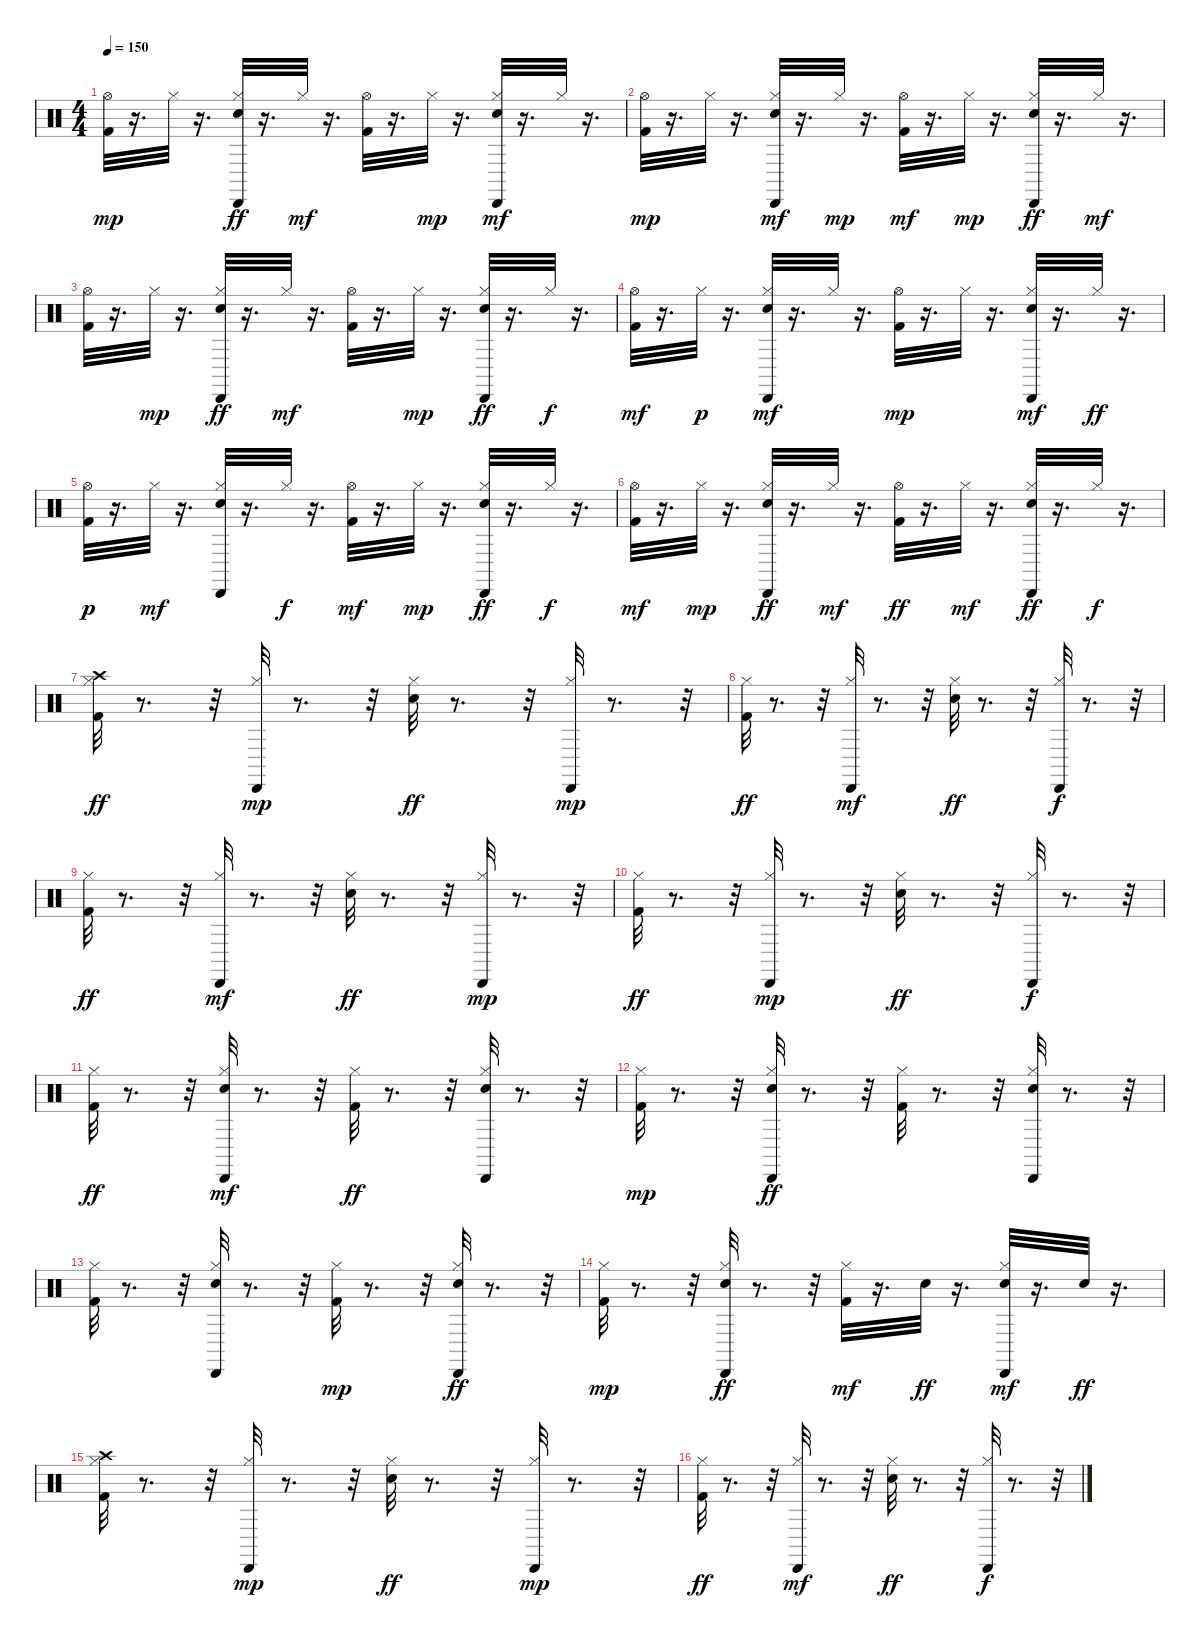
\track "" {instrument percussion}
\staff {score}
\articulation defaults
\ts (4 4)
\tempo 150
\clef neutral
\ks c
("Kick (hit) 2" "Hi-Hat (open)").32{dy mp} r.16{d} "Hi-Hat (closed)".32 r.16{d} ("Hi-Hat (closed)" "Snare (hit) 2" "Cabasa (hit)").32{dy ff} r.16{d} "Hi-Hat (closed)".32{dy mf} r.16{d} ("Kick (hit) 2" "Hi-Hat (open)").32 r.16{d} "Hi-Hat (closed)".32{dy mp} r.16{d} ("Hi-Hat (closed)" "Snare (hit) 2" "Cabasa (hit)").32{dy mf} r.16{d} "Hi-Hat (closed)".32 r.16{d} |
("Kick (hit) 2" "Hi-Hat (open)").32{dy mp} r.16{d} "Hi-Hat (closed)".32 r.16{d} ("Hi-Hat (closed)" "Snare (hit) 2" "Cabasa (hit)").32{dy mf} r.16{d} "Hi-Hat (closed)".32{dy mp} r.16{d} ("Kick (hit) 2" "Hi-Hat (open)").32{dy mf} r.16{d} "Hi-Hat (closed)".32{dy mp} r.16{d} ("Hi-Hat (closed)" "Snare (hit) 2" "Cabasa (hit)").32{dy ff} r.16{d} "Hi-Hat (closed)".32{dy mf} r.16{d} |
("Kick (hit) 2" "Hi-Hat (open)").32 r.16{d} "Hi-Hat (closed)".32{dy mp} r.16{d} ("Hi-Hat (closed)" "Snare (hit) 2" "Cabasa (hit)").32{dy ff} r.16{d} "Hi-Hat (closed)".32{dy mf} r.16{d} ("Kick (hit) 2" "Hi-Hat (open)").32 r.16{d} "Hi-Hat (closed)".32{dy mp} r.16{d} ("Hi-Hat (closed)" "Snare (hit) 2" "Cabasa (hit)").32{dy ff} r.16{d} "Hi-Hat (closed)".32{dy f} r.16{d} |
("Kick (hit) 2" "Hi-Hat (open)").32{dy mf} r.16{d} "Hi-Hat (closed)".32{dy p} r.16{d} ("Hi-Hat (closed)" "Snare (hit) 2" "Cabasa (hit)").32{dy mf} r.16{d} "Hi-Hat (closed)".32 r.16{d} ("Kick (hit) 2" "Hi-Hat (open)").32{dy mp} r.16{d} "Hi-Hat (closed)".32 r.16{d} ("Hi-Hat (closed)" "Snare (hit) 2" "Cabasa (hit)").32{dy mf} r.16{d} "Hi-Hat (closed)".32{dy ff} r.16{d} |
("Kick (hit) 2" "Hi-Hat (open)").32{dy p} r.16{d} "Hi-Hat (closed)".32{dy mf} r.16{d} ("Hi-Hat (closed)" "Snare (hit) 2" "Cabasa (hit)").32 r.16{d} "Hi-Hat (closed)".32{dy f} r.16{d} ("Kick (hit) 2" "Hi-Hat (open)").32{dy mf} r.16{d} "Hi-Hat (closed)".32{dy mp} r.16{d} ("Hi-Hat (closed)" "Snare (hit) 2" "Cabasa (hit)").32{dy ff} r.16{d} "Hi-Hat (closed)".32{dy f} r.16{d} |
("Kick (hit) 2" "Hi-Hat (open)").32{dy mf} r.16{d} "Hi-Hat (closed)".32{dy mp} r.16{d} ("Hi-Hat (closed)" "Snare (hit) 2" "Cabasa (hit)").32{dy ff} r.16{d} "Hi-Hat (closed)".32{dy mf} r.16{d} ("Kick (hit) 2" "Hi-Hat (open)").32{dy ff} r.16{d} "Hi-Hat (closed)".32{dy mf} r.16{d} ("Hi-Hat (closed)" "Snare (hit) 2" "Cabasa (hit)").32{dy ff} r.16{d} "Hi-Hat (closed)".32{dy f} r.16{d} |
("Kick (hit) 2" "Hi-Hat (closed)" "Crash high (hit)").32{dy ff} r.8{d} r.32 ("Hi-Hat (closed)" "Cabasa (hit)").32{dy mp} r.8{d} r.32 ("Hi-Hat (closed)" "Snare (hit) 2").32{dy ff} r.8{d} r.32 ("Hi-Hat (closed)" "Cabasa (hit)").32{dy mp} r.8{d} r.32 |
("Kick (hit) 2" "Hi-Hat (closed)").32{dy ff} r.8{d} r.32 ("Hi-Hat (closed)" "Cabasa (hit)").32{dy mf} r.8{d} r.32 ("Hi-Hat (closed)" "Snare (hit) 2").32{dy ff} r.8{d} r.32 ("Hi-Hat (closed)" "Cabasa (hit)").32{dy f} r.8{d} r.32 |
("Kick (hit) 2" "Hi-Hat (closed)").32{dy ff} r.8{d} r.32 ("Hi-Hat (closed)" "Cabasa (hit)").32{dy mf} r.8{d} r.32 ("Hi-Hat (closed)" "Snare (hit) 2").32{dy ff} r.8{d} r.32 ("Hi-Hat (closed)" "Cabasa (hit)").32{dy mp} r.8{d} r.32 |
("Kick (hit) 2" "Hi-Hat (closed)").32{dy ff} r.8{d} r.32 ("Hi-Hat (closed)" "Cabasa (hit)").32{dy mp} r.8{d} r.32 ("Hi-Hat (closed)" "Snare (hit) 2").32{dy ff} r.8{d} r.32 ("Hi-Hat (closed)" "Cabasa (hit)").32{dy f} r.8{d} r.32 |
("Kick (hit) 2" "Hi-Hat (closed)").32{dy ff} r.8{d} r.32 ("Hi-Hat (closed)" "Snare (hit) 2" "Cabasa (hit)").32{dy mf} r.8{d} r.32 ("Kick (hit) 2" "Hi-Hat (closed)").32{dy ff} r.8{d} r.32 ("Hi-Hat (closed)" "Snare (hit) 2" "Cabasa (hit)").32 r.8{d} r.32 |
("Kick (hit) 2" "Hi-Hat (closed)").32{dy mp} r.8{d} r.32 ("Hi-Hat (closed)" "Snare (hit) 2" "Cabasa (hit)").32{dy ff} r.8{d} r.32 ("Kick (hit) 2" "Hi-Hat (closed)").32 r.8{d} r.32 ("Hi-Hat (closed)" "Snare (hit) 2" "Cabasa (hit)").32 r.8{d} r.32 |
("Kick (hit) 2" "Hi-Hat (closed)").32 r.8{d} r.32 ("Hi-Hat (closed)" "Snare (hit) 2" "Cabasa (hit)").32 r.8{d} r.32 ("Kick (hit) 2" "Hi-Hat (closed)").32{dy mp} r.8{d} r.32 ("Hi-Hat (closed)" "Snare (hit) 2" "Cabasa (hit)").32{dy ff} r.8{d} r.32 |
("Kick (hit) 2" "Hi-Hat (closed)").32{dy mp} r.8{d} r.32 ("Hi-Hat (closed)" "Snare (hit) 2" "Cabasa (hit)").32{dy ff} r.8{d} r.32 ("Kick (hit) 2" "Hi-Hat (closed)").32{dy mf} r.16{d} "Snare (hit) 2".32{dy ff} r.16{d} ("Hi-Hat (closed)" "Snare (hit) 2" "Cabasa (hit)").32{dy mf} r.16{d} "Snare (hit) 2".32{dy ff} r.16{d} |
("Kick (hit) 2" "Hi-Hat (closed)" "Crash high (hit)").32 r.8{d} r.32 ("Hi-Hat (closed)" "Cabasa (hit)").32{dy mp} r.8{d} r.32 ("Hi-Hat (closed)" "Snare (hit) 2").32{dy ff} r.8{d} r.32 ("Hi-Hat (closed)" "Cabasa (hit)").32{dy mp} r.8{d} r.32 |
("Kick (hit) 2" "Hi-Hat (closed)").32{dy ff} r.8{d} r.32 ("Hi-Hat (closed)" "Cabasa (hit)").32{dy mf} r.8{d} r.32 ("Hi-Hat (closed)" "Snare (hit) 2").32{dy ff} r.8{d} r.32 ("Hi-Hat (closed)" "Cabasa (hit)").32{dy f} r.8{d} r.32
